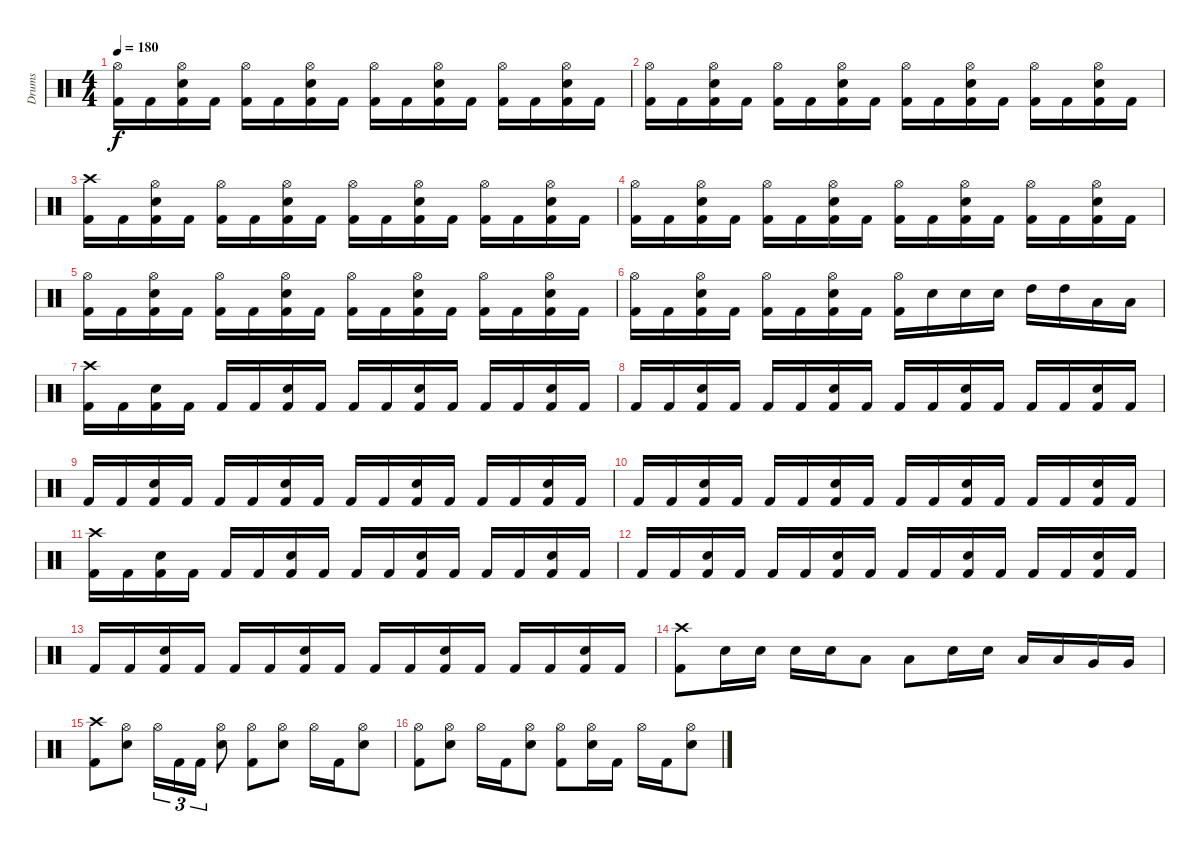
\track ("Drums" "Drums") {instrument percussion}
\staff {score}
\articulation defaults
\ts (4 4)
\tempo 180
\clef neutral
\ks c
("Hi-Hat (open)" "Kick (hit) 2").16{dy f} "Kick (hit) 2".16 ("Hi-Hat (open)" "Electric Snare (hit)" "Kick (hit) 2").16 "Kick (hit) 2".16 ("Hi-Hat (open)" "Kick (hit) 2").16 "Kick (hit) 2".16 ("Hi-Hat (open)" "Electric Snare (hit)" "Kick (hit) 2").16 "Kick (hit) 2".16 ("Hi-Hat (open)" "Kick (hit) 2").16 "Kick (hit) 2".16 ("Hi-Hat (open)" "Electric Snare (hit)" "Kick (hit) 2").16 "Kick (hit) 2".16 ("Hi-Hat (open)" "Kick (hit) 2").16 "Kick (hit) 2".16 ("Hi-Hat (open)" "Electric Snare (hit)" "Kick (hit) 2").16 "Kick (hit) 2".16 |
("Hi-Hat (open)" "Kick (hit) 2").16 "Kick (hit) 2".16 ("Hi-Hat (open)" "Electric Snare (hit)" "Kick (hit) 2").16 "Kick (hit) 2".16 ("Hi-Hat (open)" "Kick (hit) 2").16 "Kick (hit) 2".16 ("Hi-Hat (open)" "Electric Snare (hit)" "Kick (hit) 2").16 "Kick (hit) 2".16 ("Hi-Hat (open)" "Kick (hit) 2").16 "Kick (hit) 2".16 ("Hi-Hat (open)" "Electric Snare (hit)" "Kick (hit) 2").16 "Kick (hit) 2".16 ("Hi-Hat (open)" "Kick (hit) 2").16 "Kick (hit) 2".16 ("Hi-Hat (open)" "Electric Snare (hit)" "Kick (hit) 2").16 "Kick (hit) 2".16 |
("Crash high (hit)" "Kick (hit) 2").16 "Kick (hit) 2".16 ("Hi-Hat (open)" "Electric Snare (hit)" "Kick (hit) 2").16 "Kick (hit) 2".16 ("Hi-Hat (open)" "Kick (hit) 2").16 "Kick (hit) 2".16 ("Hi-Hat (open)" "Electric Snare (hit)" "Kick (hit) 2").16 "Kick (hit) 2".16 ("Hi-Hat (open)" "Kick (hit) 2").16 "Kick (hit) 2".16 ("Hi-Hat (open)" "Electric Snare (hit)" "Kick (hit) 2").16 "Kick (hit) 2".16 ("Hi-Hat (open)" "Kick (hit) 2").16 "Kick (hit) 2".16 ("Hi-Hat (open)" "Electric Snare (hit)" "Kick (hit) 2").16 "Kick (hit) 2".16 |
("Hi-Hat (open)" "Kick (hit) 2").16 "Kick (hit) 2".16 ("Hi-Hat (open)" "Electric Snare (hit)" "Kick (hit) 2").16 "Kick (hit) 2".16 ("Hi-Hat (open)" "Kick (hit) 2").16 "Kick (hit) 2".16 ("Hi-Hat (open)" "Electric Snare (hit)" "Kick (hit) 2").16 "Kick (hit) 2".16 ("Hi-Hat (open)" "Kick (hit) 2").16 "Kick (hit) 2".16 ("Hi-Hat (open)" "Electric Snare (hit)" "Kick (hit) 2").16 "Kick (hit) 2".16 ("Hi-Hat (open)" "Kick (hit) 2").16 "Kick (hit) 2".16 ("Hi-Hat (open)" "Electric Snare (hit)" "Kick (hit) 2").16 "Kick (hit) 2".16 |
("Hi-Hat (open)" "Kick (hit) 2").16 "Kick (hit) 2".16 ("Hi-Hat (open)" "Electric Snare (hit)" "Kick (hit) 2").16 "Kick (hit) 2".16 ("Hi-Hat (open)" "Kick (hit) 2").16 "Kick (hit) 2".16 ("Hi-Hat (open)" "Electric Snare (hit)" "Kick (hit) 2").16 "Kick (hit) 2".16 ("Hi-Hat (open)" "Kick (hit) 2").16 "Kick (hit) 2".16 ("Hi-Hat (open)" "Electric Snare (hit)" "Kick (hit) 2").16 "Kick (hit) 2".16 ("Hi-Hat (open)" "Kick (hit) 2").16 "Kick (hit) 2".16 ("Hi-Hat (open)" "Electric Snare (hit)" "Kick (hit) 2").16 "Kick (hit) 2".16 |
("Hi-Hat (open)" "Kick (hit) 2").16 "Kick (hit) 2".16 ("Hi-Hat (open)" "Electric Snare (hit)" "Kick (hit) 2").16 "Kick (hit) 2".16 ("Hi-Hat (open)" "Kick (hit) 2").16 "Kick (hit) 2".16 ("Hi-Hat (open)" "Electric Snare (hit)" "Kick (hit) 2").16 "Kick (hit) 2".16 ("Hi-Hat (open)" "Kick (hit) 2").16 "Electric Snare (hit)".16 "Electric Snare (hit)".16 "Electric Snare (hit)".16 "High Tom (hit)".16 "High Tom (hit)".16 "Low Tom (hit)".16 "Low Tom (hit)".16 |
("Crash high (hit)" "Kick (hit) 2").16 "Kick (hit) 2".16 ("Electric Snare (hit)" "Kick (hit) 2").16 "Kick (hit) 2".16 "Kick (hit) 2".16 "Kick (hit) 2".16 ("Electric Snare (hit)" "Kick (hit) 2").16 "Kick (hit) 2".16 "Kick (hit) 2".16 "Kick (hit) 2".16 ("Electric Snare (hit)" "Kick (hit) 2").16 "Kick (hit) 2".16 "Kick (hit) 2".16 "Kick (hit) 2".16 ("Electric Snare (hit)" "Kick (hit) 2").16 "Kick (hit) 2".16 |
"Kick (hit) 2".16 "Kick (hit) 2".16 ("Electric Snare (hit)" "Kick (hit) 2").16 "Kick (hit) 2".16 "Kick (hit) 2".16 "Kick (hit) 2".16 ("Electric Snare (hit)" "Kick (hit) 2").16 "Kick (hit) 2".16 "Kick (hit) 2".16 "Kick (hit) 2".16 ("Electric Snare (hit)" "Kick (hit) 2").16 "Kick (hit) 2".16 "Kick (hit) 2".16 "Kick (hit) 2".16 ("Electric Snare (hit)" "Kick (hit) 2").16 "Kick (hit) 2".16 |
"Kick (hit) 2".16 "Kick (hit) 2".16 ("Electric Snare (hit)" "Kick (hit) 2").16 "Kick (hit) 2".16 "Kick (hit) 2".16 "Kick (hit) 2".16 ("Electric Snare (hit)" "Kick (hit) 2").16 "Kick (hit) 2".16 "Kick (hit) 2".16 "Kick (hit) 2".16 ("Electric Snare (hit)" "Kick (hit) 2").16 "Kick (hit) 2".16 "Kick (hit) 2".16 "Kick (hit) 2".16 ("Electric Snare (hit)" "Kick (hit) 2").16 "Kick (hit) 2".16 |
"Kick (hit) 2".16 "Kick (hit) 2".16 ("Electric Snare (hit)" "Kick (hit) 2").16 "Kick (hit) 2".16 "Kick (hit) 2".16 "Kick (hit) 2".16 ("Electric Snare (hit)" "Kick (hit) 2").16 "Kick (hit) 2".16 "Kick (hit) 2".16 "Kick (hit) 2".16 ("Electric Snare (hit)" "Kick (hit) 2").16 "Kick (hit) 2".16 "Kick (hit) 2".16 "Kick (hit) 2".16 ("Electric Snare (hit)" "Kick (hit) 2").16 "Kick (hit) 2".16 |
("Crash high (hit)" "Kick (hit) 2").16 "Kick (hit) 2".16 ("Electric Snare (hit)" "Kick (hit) 2").16 "Kick (hit) 2".16 "Kick (hit) 2".16 "Kick (hit) 2".16 ("Electric Snare (hit)" "Kick (hit) 2").16 "Kick (hit) 2".16 "Kick (hit) 2".16 "Kick (hit) 2".16 ("Electric Snare (hit)" "Kick (hit) 2").16 "Kick (hit) 2".16 "Kick (hit) 2".16 "Kick (hit) 2".16 ("Electric Snare (hit)" "Kick (hit) 2").16 "Kick (hit) 2".16 |
"Kick (hit) 2".16 "Kick (hit) 2".16 ("Electric Snare (hit)" "Kick (hit) 2").16 "Kick (hit) 2".16 "Kick (hit) 2".16 "Kick (hit) 2".16 ("Electric Snare (hit)" "Kick (hit) 2").16 "Kick (hit) 2".16 "Kick (hit) 2".16 "Kick (hit) 2".16 ("Electric Snare (hit)" "Kick (hit) 2").16 "Kick (hit) 2".16 "Kick (hit) 2".16 "Kick (hit) 2".16 ("Electric Snare (hit)" "Kick (hit) 2").16 "Kick (hit) 2".16 |
"Kick (hit) 2".16 "Kick (hit) 2".16 ("Electric Snare (hit)" "Kick (hit) 2").16 "Kick (hit) 2".16 "Kick (hit) 2".16 "Kick (hit) 2".16 ("Electric Snare (hit)" "Kick (hit) 2").16 "Kick (hit) 2".16 "Kick (hit) 2".16 "Kick (hit) 2".16 ("Electric Snare (hit)" "Kick (hit) 2").16 "Kick (hit) 2".16 "Kick (hit) 2".16 "Kick (hit) 2".16 ("Electric Snare (hit)" "Kick (hit) 2").16 "Kick (hit) 2".16 |
("Crash high (hit)" "Kick (hit) 2").8 "Electric Snare (hit)".16 "Electric Snare (hit)".16 "Electric Snare (hit)".16 "Electric Snare (hit)".16 "Low Tom (hit)".8 "Low Tom (hit)".8 "Electric Snare (hit)".16 "Electric Snare (hit)".16 "Low Tom (hit)".16 "Low Tom (hit)".16 "Very Low Tom (hit)".16 "Very Low Tom (hit)".16 |
("Crash high (hit)" "Kick (hit) 2").8 ("Hi-Hat (open)" "Electric Snare (hit)").8 "Hi-Hat (open)".16{tu (3 2)} "Kick (hit) 2".16{tu (3 2)} "Kick (hit) 2".16{tu (3 2)} ("Hi-Hat (open)" "Electric Snare (hit)").8 ("Hi-Hat (open)" "Kick (hit) 2").8 ("Hi-Hat (open)" "Electric Snare (hit)").8 "Hi-Hat (open)".16 "Kick (hit) 2".16 ("Hi-Hat (open)" "Electric Snare (hit)").8 |
("Hi-Hat (open)" "Kick (hit) 2").8 ("Hi-Hat (open)" "Electric Snare (hit)").8 "Hi-Hat (open)".16 "Kick (hit) 2".16 ("Hi-Hat (open)" "Electric Snare (hit)").8 ("Hi-Hat (open)" "Kick (hit) 2").8 ("Hi-Hat (open)" "Electric Snare (hit)").16 "Kick (hit) 2".16 "Hi-Hat (open)".16 "Kick (hit) 2".16 ("Hi-Hat (open)" "Electric Snare (hit)").8
